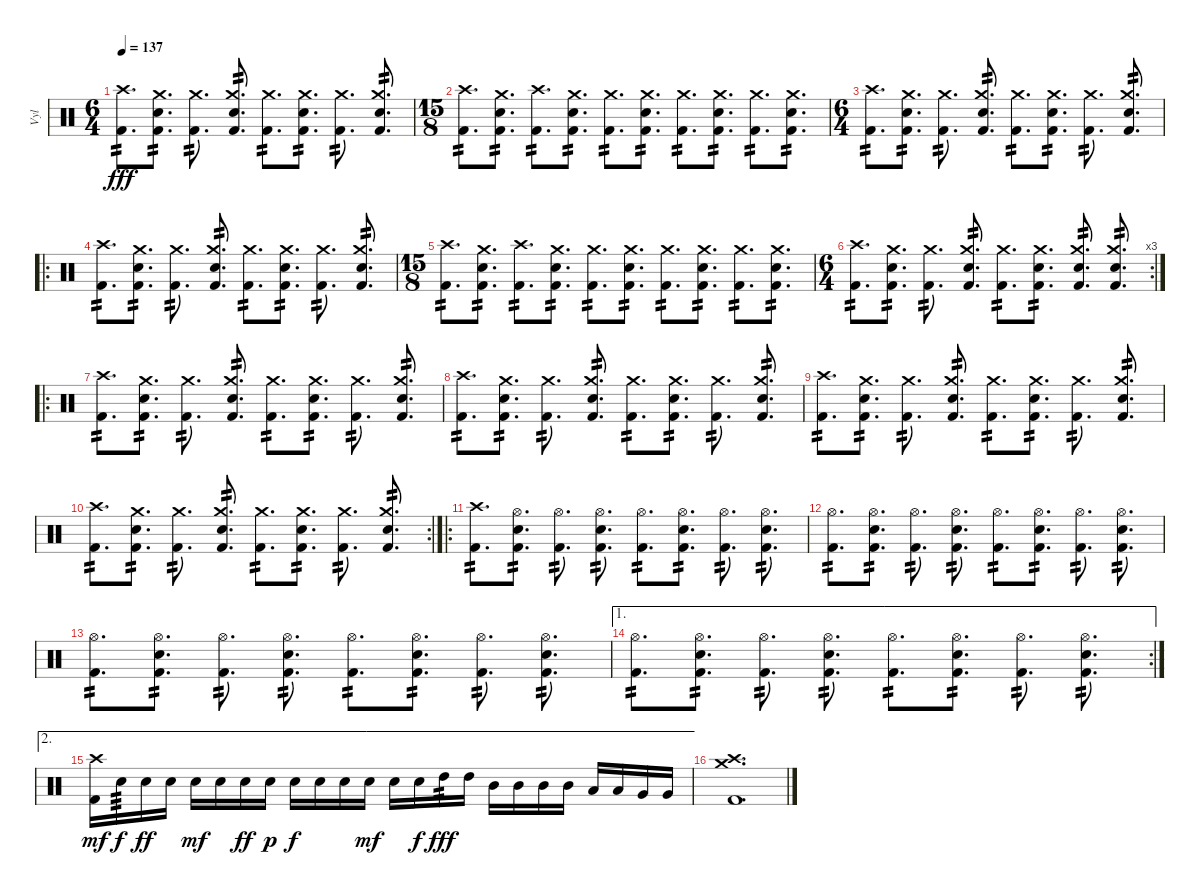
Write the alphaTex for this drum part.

\track ("Vyl" "Vyl") {instrument percussion}
\staff {score}
\articulation defaults
\ts (6 4)
\tempo 137
\clef neutral
\ks c
("Crash high (hit)" "Kick (hit) 2").8{d tp 2 dy fff} ("Crash medium (hit)" "Snare (hit) 2" "Kick (hit) 2").8{d tp 2} ("Crash medium (hit)" "Kick (hit) 2").8{d tp 2} ("Crash medium (hit)" "Snare (hit) 2" "Kick (hit) 2").8{d tp 2} ("Crash medium (hit)" "Kick (hit) 2").8{d tp 2} ("Crash medium (hit)" "Snare (hit) 2" "Kick (hit) 2").8{d tp 2} ("Crash medium (hit)" "Kick (hit) 2").8{d tp 2} ("Crash medium (hit)" "Snare (hit) 2" "Kick (hit) 2").8{d tp 2} |
\ts (15 8)
("Crash high (hit)" "Kick (hit) 2").8{d tp 2} ("Crash medium (hit)" "Snare (hit) 2" "Kick (hit) 2").8{d tp 2} ("Crash high (hit)" "Kick (hit) 2").8{d tp 2} ("Crash medium (hit)" "Snare (hit) 2" "Kick (hit) 2").8{d tp 2} ("Crash medium (hit)" "Kick (hit) 2").8{d tp 2} ("Crash medium (hit)" "Snare (hit) 2" "Kick (hit) 2").8{d tp 2} ("Crash medium (hit)" "Kick (hit) 2").8{d tp 2} ("Crash medium (hit)" "Snare (hit) 2" "Kick (hit) 2").8{d tp 2} ("Crash medium (hit)" "Kick (hit) 2").8{d tp 2} ("Crash medium (hit)" "Snare (hit) 2" "Kick (hit) 2").8{d tp 2} |
\ts (6 4)
("Crash high (hit)" "Kick (hit) 2").8{d tp 2} ("Crash medium (hit)" "Snare (hit) 2" "Kick (hit) 2").8{d tp 2} ("Crash medium (hit)" "Kick (hit) 2").8{d tp 2} ("Crash medium (hit)" "Snare (hit) 2" "Kick (hit) 2").8{d tp 2} ("Crash medium (hit)" "Kick (hit) 2").8{d tp 2} ("Crash medium (hit)" "Snare (hit) 2" "Kick (hit) 2").8{d tp 2} ("Crash medium (hit)" "Kick (hit) 2").8{d tp 2} ("Crash medium (hit)" "Snare (hit) 2" "Kick (hit) 2").8{d tp 2} |
\ro
("Crash high (hit)" "Kick (hit) 2").8{d tp 2} ("Crash medium (hit)" "Snare (hit) 2" "Kick (hit) 2").8{d tp 2} ("Crash medium (hit)" "Kick (hit) 2").8{d tp 2} ("Crash medium (hit)" "Snare (hit) 2" "Kick (hit) 2").8{d tp 2} ("Crash medium (hit)" "Kick (hit) 2").8{d tp 2} ("Crash medium (hit)" "Snare (hit) 2" "Kick (hit) 2").8{d tp 2} ("Crash medium (hit)" "Kick (hit) 2").8{d tp 2} ("Crash medium (hit)" "Snare (hit) 2" "Kick (hit) 2").8{d tp 2} |
\ts (15 8)
("Crash high (hit)" "Kick (hit) 2").8{d tp 2} ("Crash medium (hit)" "Snare (hit) 2" "Kick (hit) 2").8{d tp 2} ("Crash high (hit)" "Kick (hit) 2").8{d tp 2} ("Crash medium (hit)" "Snare (hit) 2" "Kick (hit) 2").8{d tp 2} ("Crash medium (hit)" "Kick (hit) 2").8{d tp 2} ("Crash medium (hit)" "Snare (hit) 2" "Kick (hit) 2").8{d tp 2} ("Crash medium (hit)" "Kick (hit) 2").8{d tp 2} ("Crash medium (hit)" "Snare (hit) 2" "Kick (hit) 2").8{d tp 2} ("Crash medium (hit)" "Kick (hit) 2").8{d tp 2} ("Crash medium (hit)" "Snare (hit) 2" "Kick (hit) 2").8{d tp 2} |
\rc 3
\ts (6 4)
("Crash high (hit)" "Kick (hit) 2").8{d tp 2} ("Crash medium (hit)" "Snare (hit) 2" "Kick (hit) 2").8{d tp 2} ("Crash medium (hit)" "Kick (hit) 2").8{d tp 2} ("Crash medium (hit)" "Snare (hit) 2" "Kick (hit) 2").8{d tp 2} ("Crash medium (hit)" "Kick (hit) 2").8{d tp 2} ("Crash medium (hit)" "Snare (hit) 2" "Kick (hit) 2").8{d tp 2} ("Crash medium (hit)" "Snare (hit) 2" "Kick (hit) 2").8{d tp 2} ("Crash medium (hit)" "Snare (hit) 2" "Kick (hit) 2").8{d tp 2} |
\ro
("Crash high (hit)" "Kick (hit) 2").8{d tp 2} ("Crash medium (hit)" "Snare (hit) 2" "Kick (hit) 2").8{d tp 2} ("Crash medium (hit)" "Kick (hit) 2").8{d tp 2} ("Crash medium (hit)" "Snare (hit) 2" "Kick (hit) 2").8{d tp 2} ("Crash medium (hit)" "Kick (hit) 2").8{d tp 2} ("Crash medium (hit)" "Snare (hit) 2" "Kick (hit) 2").8{d tp 2} ("Crash medium (hit)" "Kick (hit) 2").8{d tp 2} ("Crash medium (hit)" "Snare (hit) 2" "Kick (hit) 2").8{d tp 2} |
("Crash high (hit)" "Kick (hit) 2").8{d tp 2} ("Crash medium (hit)" "Snare (hit) 2" "Kick (hit) 2").8{d tp 2} ("Crash medium (hit)" "Kick (hit) 2").8{d tp 2} ("Crash medium (hit)" "Snare (hit) 2" "Kick (hit) 2").8{d tp 2} ("Crash medium (hit)" "Kick (hit) 2").8{d tp 2} ("Crash medium (hit)" "Snare (hit) 2" "Kick (hit) 2").8{d tp 2} ("Crash medium (hit)" "Kick (hit) 2").8{d tp 2} ("Crash medium (hit)" "Snare (hit) 2" "Kick (hit) 2").8{d tp 2} |
("Crash high (hit)" "Kick (hit) 2").8{d tp 2} ("Crash medium (hit)" "Snare (hit) 2" "Kick (hit) 2").8{d tp 2} ("Crash medium (hit)" "Kick (hit) 2").8{d tp 2} ("Crash medium (hit)" "Snare (hit) 2" "Kick (hit) 2").8{d tp 2} ("Crash medium (hit)" "Kick (hit) 2").8{d tp 2} ("Crash medium (hit)" "Snare (hit) 2" "Kick (hit) 2").8{d tp 2} ("Crash medium (hit)" "Kick (hit) 2").8{d tp 2} ("Crash medium (hit)" "Snare (hit) 2" "Kick (hit) 2").8{d tp 2} |
\rc 2
("Crash high (hit)" "Kick (hit) 2").8{d tp 2} ("Crash medium (hit)" "Snare (hit) 2" "Kick (hit) 2").8{d tp 2} ("Crash medium (hit)" "Kick (hit) 2").8{d tp 2} ("Crash medium (hit)" "Snare (hit) 2" "Kick (hit) 2").8{d tp 2} ("Crash medium (hit)" "Kick (hit) 2").8{d tp 2} ("Crash medium (hit)" "Snare (hit) 2" "Kick (hit) 2").8{d tp 2} ("Crash medium (hit)" "Kick (hit) 2").8{d tp 2} ("Crash medium (hit)" "Snare (hit) 2" "Kick (hit) 2").8{d tp 2} |
\ro
("Crash high (hit)" "Kick (hit) 2").8{d tp 2} ("Hi-Hat (open)" "Snare (hit) 2" "Kick (hit) 2").8{d tp 2} ("Hi-Hat (open)" "Kick (hit) 2").8{d tp 2} ("Hi-Hat (open)" "Snare (hit) 2" "Kick (hit) 2").8{d tp 2} ("Hi-Hat (open)" "Kick (hit) 2").8{d tp 2} ("Hi-Hat (open)" "Snare (hit) 2" "Kick (hit) 2").8{d tp 2} ("Hi-Hat (open)" "Kick (hit) 2").8{d tp 2} ("Hi-Hat (open)" "Snare (hit) 2" "Kick (hit) 2").8{d tp 2} |
("Hi-Hat (open)" "Kick (hit) 2").8{d tp 2} ("Hi-Hat (open)" "Snare (hit) 2" "Kick (hit) 2").8{d tp 2} ("Hi-Hat (open)" "Kick (hit) 2").8{d tp 2} ("Hi-Hat (open)" "Snare (hit) 2" "Kick (hit) 2").8{d tp 2} ("Hi-Hat (open)" "Kick (hit) 2").8{d tp 2} ("Hi-Hat (open)" "Snare (hit) 2" "Kick (hit) 2").8{d tp 2} ("Hi-Hat (open)" "Kick (hit) 2").8{d tp 2} ("Hi-Hat (open)" "Snare (hit) 2" "Kick (hit) 2").8{d tp 2} |
("Hi-Hat (open)" "Kick (hit) 2").8{d tp 2} ("Hi-Hat (open)" "Snare (hit) 2" "Kick (hit) 2").8{d tp 2} ("Hi-Hat (open)" "Kick (hit) 2").8{d tp 2} ("Hi-Hat (open)" "Snare (hit) 2" "Kick (hit) 2").8{d tp 2} ("Hi-Hat (open)" "Kick (hit) 2").8{d tp 2} ("Hi-Hat (open)" "Snare (hit) 2" "Kick (hit) 2").8{d tp 2} ("Hi-Hat (open)" "Kick (hit) 2").8{d tp 2} ("Hi-Hat (open)" "Snare (hit) 2" "Kick (hit) 2").8{d tp 2} |
\ae 1
\rc 2
("Hi-Hat (open)" "Kick (hit) 2").8{d tp 2} ("Hi-Hat (open)" "Snare (hit) 2" "Kick (hit) 2").8{d tp 2} ("Hi-Hat (open)" "Kick (hit) 2").8{d tp 2} ("Hi-Hat (open)" "Snare (hit) 2" "Kick (hit) 2").8{d tp 2} ("Hi-Hat (open)" "Kick (hit) 2").8{d tp 2} ("Hi-Hat (open)" "Snare (hit) 2" "Kick (hit) 2").8{d tp 2} ("Hi-Hat (open)" "Kick (hit) 2").8{d tp 2} ("Hi-Hat (open)" "Snare (hit) 2" "Kick (hit) 2").8{d tp 2} |
\ae 2
("Crash high (hit)" "Kick (hit) 2").16{dy mf} "Snare (hit) 2".16{tp 3 dy f} "Snare (hit) 2".16{dy ff} "Snare (hit) 2".16 "Snare (hit) 2".16{dy mf} "Snare (hit) 2".16 "Snare (hit) 2".16{dy ff} "Snare (hit) 2".16{dy p} "Snare (hit) 2".16{dy f} "Snare (hit) 2".16 "Snare (hit) 2".16 "Snare (hit) 2".16{dy mf} "Snare (hit) 2".16 "Snare (hit) 2".16{dy f} "High Tom (hit)".16{tp 2 dy fff} "High Tom (hit)".16 "Mid Tom (hit)".16 "Mid Tom (hit)".16 "Mid Tom (hit)".16 "Mid Tom (hit)".16 "Low Tom (hit)".16 "Low Tom (hit)".16 "Very Low Tom (hit)".16 "Very Low Tom (hit)".16 |
("Crash medium (hit)" "Crash high (hit)" "Kick (hit) 2").1{d}
